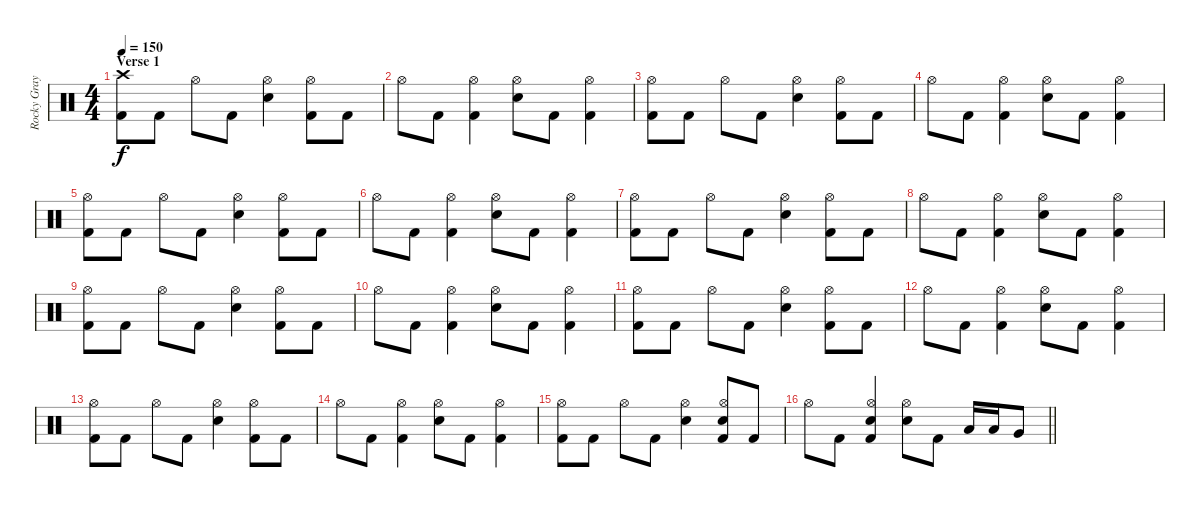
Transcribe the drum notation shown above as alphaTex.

\track ("Rocky Gray" "Rocky Gray") {instrument percussion}
\staff {score}
\articulation defaults
\ts (4 4)
\section ("" "Verse 1")
\tempo 150
\clef neutral
\ks c
("Crash high (hit)" "Kick (hit) 2").8{dy f} "Kick (hit) 2".8 "Hi-Hat (open)".8 "Kick (hit) 2".8 ("Hi-Hat (open)" "Snare (hit) 2").4 ("Hi-Hat (open)" "Kick (hit) 2").8 "Kick (hit) 2".8 |
"Hi-Hat (open)".8 "Kick (hit) 2".8 ("Hi-Hat (open)" "Kick (hit) 2").4 ("Hi-Hat (open)" "Snare (hit) 2").8 "Kick (hit) 2".8 ("Hi-Hat (open)" "Kick (hit) 2").4 |
("Hi-Hat (open)" "Kick (hit) 2").8 "Kick (hit) 2".8 "Hi-Hat (open)".8 "Kick (hit) 2".8 ("Hi-Hat (open)" "Snare (hit) 2").4 ("Hi-Hat (open)" "Kick (hit) 2").8 "Kick (hit) 2".8 |
"Hi-Hat (open)".8 "Kick (hit) 2".8 ("Hi-Hat (open)" "Kick (hit) 2").4 ("Hi-Hat (open)" "Snare (hit) 2").8 "Kick (hit) 2".8 ("Hi-Hat (open)" "Kick (hit) 2").4 |
("Hi-Hat (open)" "Kick (hit) 2").8 "Kick (hit) 2".8 "Hi-Hat (open)".8 "Kick (hit) 2".8 ("Hi-Hat (open)" "Snare (hit) 2").4 ("Hi-Hat (open)" "Kick (hit) 2").8 "Kick (hit) 2".8 |
"Hi-Hat (open)".8 "Kick (hit) 2".8 ("Hi-Hat (open)" "Kick (hit) 2").4 ("Hi-Hat (open)" "Snare (hit) 2").8 "Kick (hit) 2".8 ("Hi-Hat (open)" "Kick (hit) 2").4 |
("Hi-Hat (open)" "Kick (hit) 2").8 "Kick (hit) 2".8 "Hi-Hat (open)".8 "Kick (hit) 2".8 ("Hi-Hat (open)" "Snare (hit) 2").4 ("Hi-Hat (open)" "Kick (hit) 2").8 "Kick (hit) 2".8 |
"Hi-Hat (open)".8 "Kick (hit) 2".8 ("Hi-Hat (open)" "Kick (hit) 2").4 ("Hi-Hat (open)" "Snare (hit) 2").8 "Kick (hit) 2".8 ("Hi-Hat (open)" "Kick (hit) 2").4 |
("Hi-Hat (open)" "Kick (hit) 2").8 "Kick (hit) 2".8 "Hi-Hat (open)".8 "Kick (hit) 2".8 ("Hi-Hat (open)" "Snare (hit) 2").4 ("Hi-Hat (open)" "Kick (hit) 2").8 "Kick (hit) 2".8 |
"Hi-Hat (open)".8 "Kick (hit) 2".8 ("Hi-Hat (open)" "Kick (hit) 2").4 ("Hi-Hat (open)" "Snare (hit) 2").8 "Kick (hit) 2".8 ("Hi-Hat (open)" "Kick (hit) 2").4 |
("Hi-Hat (open)" "Kick (hit) 2").8 "Kick (hit) 2".8 "Hi-Hat (open)".8 "Kick (hit) 2".8 ("Hi-Hat (open)" "Snare (hit) 2").4 ("Hi-Hat (open)" "Kick (hit) 2").8 "Kick (hit) 2".8 |
"Hi-Hat (open)".8 "Kick (hit) 2".8 ("Hi-Hat (open)" "Kick (hit) 2").4 ("Hi-Hat (open)" "Snare (hit) 2").8 "Kick (hit) 2".8 ("Hi-Hat (open)" "Kick (hit) 2").4 |
("Hi-Hat (open)" "Kick (hit) 2").8 "Kick (hit) 2".8 "Hi-Hat (open)".8 "Kick (hit) 2".8 ("Hi-Hat (open)" "Snare (hit) 2").4 ("Hi-Hat (open)" "Kick (hit) 2").8 "Kick (hit) 2".8 |
"Hi-Hat (open)".8 "Kick (hit) 2".8 ("Hi-Hat (open)" "Kick (hit) 2").4 ("Hi-Hat (open)" "Snare (hit) 2").8 "Kick (hit) 2".8 ("Hi-Hat (open)" "Kick (hit) 2").4 |
("Hi-Hat (open)" "Kick (hit) 2").8 "Kick (hit) 2".8 "Hi-Hat (open)".8 "Kick (hit) 2".8 ("Hi-Hat (open)" "Snare (hit) 2").4 ("Hi-Hat (open)" "Snare (hit) 2" "Kick (hit) 2").8 "Kick (hit) 2".8 |
\barLineRight lightlight "Hi-Hat (open)".8 "Kick (hit) 2".8
("Hi-Hat (open)" "Snare (hit) 2" "Kick (hit) 2").4 ("Hi-Hat (open)" "Snare (hit) 2").8 "Kick (hit) 2".8 "Low Tom (hit)".16 "Low Tom (hit)".16 "Very Low Tom (hit)".8
